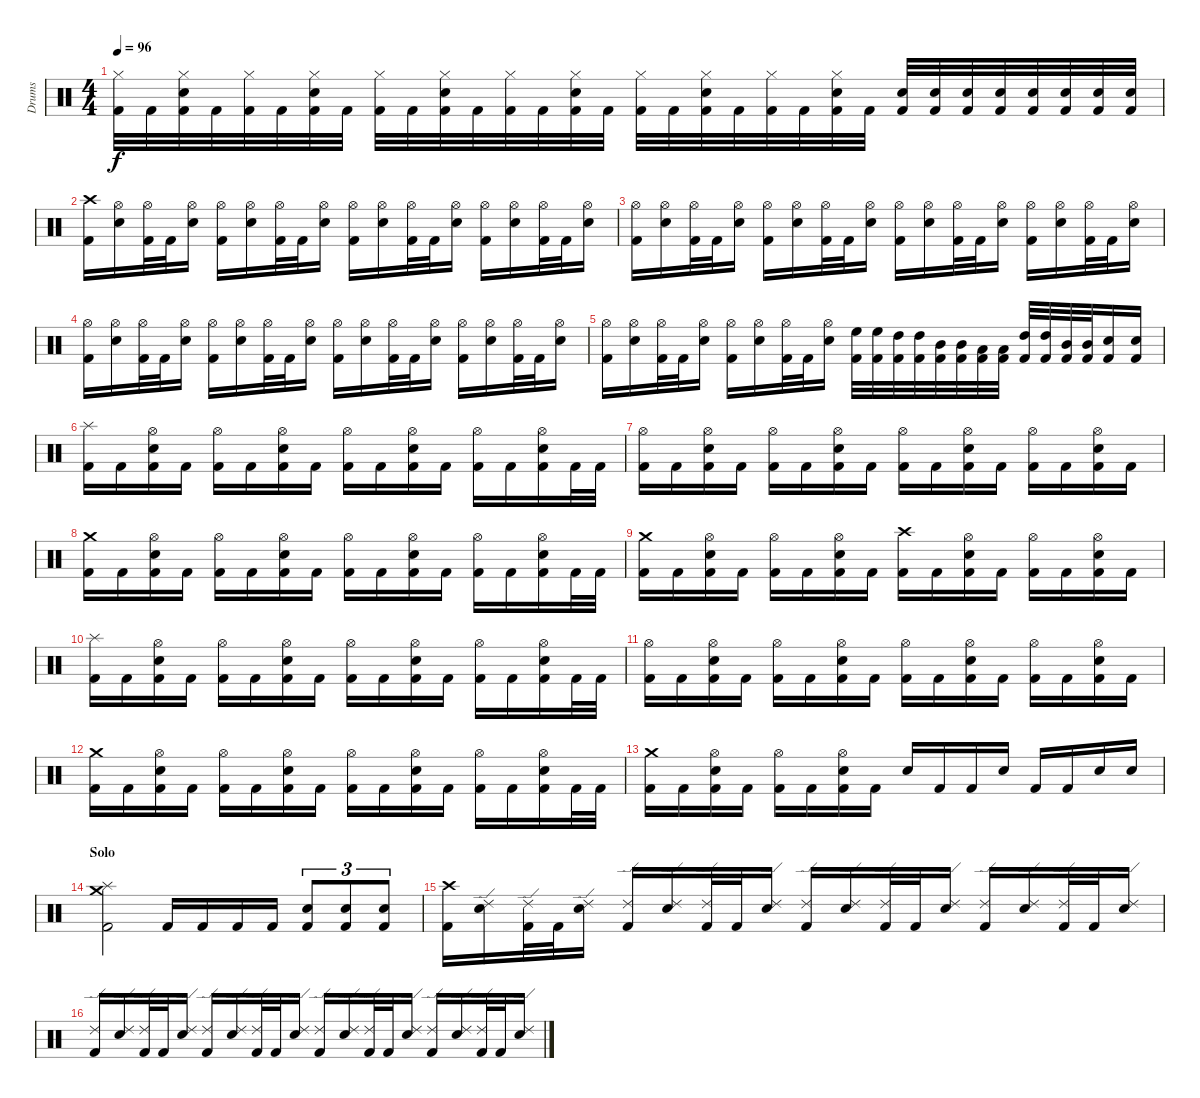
\track ("Drums" "Drums") {instrument percussion}
\staff {score}
\articulation defaults
\ts (4 4)
\tempo 96
\clef neutral
\ks c
("Kick (hit) 2" "Hi-Hat (closed)").32{dy f} "Kick (hit) 2".32 ("Kick (hit) 2" "Snare (hit) 2" "Hi-Hat (closed)").32 "Kick (hit) 2".32 ("Kick (hit) 2" "Hi-Hat (closed)").32 "Kick (hit) 2".32 ("Kick (hit) 2" "Snare (hit) 2" "Hi-Hat (closed)").32 "Kick (hit) 2".32 ("Kick (hit) 2" "Hi-Hat (closed)").32 "Kick (hit) 2".32 ("Kick (hit) 2" "Snare (hit) 2" "Hi-Hat (closed)").32 "Kick (hit) 2".32 ("Kick (hit) 2" "Hi-Hat (closed)").32 "Kick (hit) 2".32 ("Kick (hit) 2" "Snare (hit) 2" "Hi-Hat (closed)").32 "Kick (hit) 2".32 ("Kick (hit) 2" "Hi-Hat (closed)").32 "Kick (hit) 2".32 ("Kick (hit) 2" "Snare (hit) 2" "Hi-Hat (closed)").32 "Kick (hit) 2".32 ("Kick (hit) 2" "Hi-Hat (closed)").32 "Kick (hit) 2".32 ("Kick (hit) 2" "Snare (hit) 2" "Hi-Hat (closed)").32 "Kick (hit) 2".32 ("Kick (hit) 2" "Snare (hit) 2").32 ("Kick (hit) 2" "Snare (hit) 2").32 ("Kick (hit) 2" "Snare (hit) 2").32 ("Kick (hit) 2" "Snare (hit) 2").32 ("Kick (hit) 2" "Snare (hit) 2").32 ("Kick (hit) 2" "Snare (hit) 2").32 ("Kick (hit) 2" "Snare (hit) 2").32 ("Kick (hit) 2" "Snare (hit) 2").32 |
("Kick (hit) 2" "Crash high (hit)").16 ("Snare (hit) 2" "Hi-Hat (open)").16 ("Kick (hit) 2" "Hi-Hat (open)").32 "Kick (hit) 2".32 ("Snare (hit) 2" "Hi-Hat (open)").16 ("Kick (hit) 2" "Hi-Hat (open)").16 ("Snare (hit) 2" "Hi-Hat (open)").16 ("Kick (hit) 2" "Hi-Hat (open)").32 "Kick (hit) 2".32 ("Snare (hit) 2" "Hi-Hat (open)").16 ("Kick (hit) 2" "Hi-Hat (open)").16 ("Snare (hit) 2" "Hi-Hat (open)").16 ("Kick (hit) 2" "Hi-Hat (open)").32 "Kick (hit) 2".32 ("Snare (hit) 2" "Hi-Hat (open)").16 ("Kick (hit) 2" "Hi-Hat (open)").16 ("Snare (hit) 2" "Hi-Hat (open)").16 ("Kick (hit) 2" "Hi-Hat (open)").32 "Kick (hit) 2".32 ("Snare (hit) 2" "Hi-Hat (open)").16 |
("Kick (hit) 2" "Hi-Hat (open)").16 ("Snare (hit) 2" "Hi-Hat (open)").16 ("Kick (hit) 2" "Hi-Hat (open)").32 "Kick (hit) 2".32 ("Snare (hit) 2" "Hi-Hat (open)").16 ("Kick (hit) 2" "Hi-Hat (open)").16 ("Snare (hit) 2" "Hi-Hat (open)").16 ("Kick (hit) 2" "Hi-Hat (open)").32 "Kick (hit) 2".32 ("Snare (hit) 2" "Hi-Hat (open)").16 ("Kick (hit) 2" "Hi-Hat (open)").16 ("Snare (hit) 2" "Hi-Hat (open)").16 ("Kick (hit) 2" "Hi-Hat (open)").32 "Kick (hit) 2".32 ("Snare (hit) 2" "Hi-Hat (open)").16 ("Kick (hit) 2" "Hi-Hat (open)").16 ("Snare (hit) 2" "Hi-Hat (open)").16 ("Kick (hit) 2" "Hi-Hat (open)").32 "Kick (hit) 2".32 ("Snare (hit) 2" "Hi-Hat (open)").16 |
("Kick (hit) 2" "Hi-Hat (open)").16 ("Snare (hit) 2" "Hi-Hat (open)").16 ("Kick (hit) 2" "Hi-Hat (open)").32 "Kick (hit) 2".32 ("Snare (hit) 2" "Hi-Hat (open)").16 ("Kick (hit) 2" "Hi-Hat (open)").16 ("Snare (hit) 2" "Hi-Hat (open)").16 ("Kick (hit) 2" "Hi-Hat (open)").32 "Kick (hit) 2".32 ("Snare (hit) 2" "Hi-Hat (open)").16 ("Kick (hit) 2" "Hi-Hat (open)").16 ("Snare (hit) 2" "Hi-Hat (open)").16 ("Kick (hit) 2" "Hi-Hat (open)").32 "Kick (hit) 2".32 ("Snare (hit) 2" "Hi-Hat (open)").16 ("Kick (hit) 2" "Hi-Hat (open)").16 ("Snare (hit) 2" "Hi-Hat (open)").16 ("Kick (hit) 2" "Hi-Hat (open)").32 "Kick (hit) 2".32 ("Snare (hit) 2" "Hi-Hat (open)").16 |
("Kick (hit) 2" "Hi-Hat (open)").16 ("Snare (hit) 2" "Hi-Hat (open)").16 ("Kick (hit) 2" "Hi-Hat (open)").32 "Kick (hit) 2".32 ("Snare (hit) 2" "Hi-Hat (open)").16 ("Kick (hit) 2" "Hi-Hat (open)").16 ("Snare (hit) 2" "Hi-Hat (open)").16 ("Kick (hit) 2" "Hi-Hat (open)").32 "Kick (hit) 2".32 ("Snare (hit) 2" "Hi-Hat (open)").16 ("Kick (hit) 2" "High Floor Tom (hit)").32 ("Kick (hit) 2" "High Floor Tom (hit)").32 ("Kick (hit) 2" "High Tom (hit)").32 ("Kick (hit) 2" "High Tom (hit)").32 ("Kick (hit) 2" "Mid Tom (hit)").32 ("Kick (hit) 2" "Mid Tom (hit)").32 ("Kick (hit) 2" "Low Tom (hit)").32 ("Kick (hit) 2" "Low Tom (hit)").32 ("Kick (hit) 2" "High Tom (hit)").32 ("Kick (hit) 2" "High Tom (hit)").32 ("Kick (hit) 2" "Mid Tom (hit)").32 ("Kick (hit) 2" "Mid Tom (hit)").32 ("Kick (hit) 2" "Snare (hit) 2").16 ("Kick (hit) 2" "Snare (hit) 2").16 |
\section ("" "")
("Kick (hit) 2" "Splash (hit)").16 "Kick (hit) 2".16 ("Kick (hit) 2" "Snare (hit) 2" "Hi-Hat (open)").16 "Kick (hit) 2".16 ("Kick (hit) 2" "Hi-Hat (open)").16 "Kick (hit) 2".16 ("Kick (hit) 2" "Snare (hit) 2" "Hi-Hat (open)").16 "Kick (hit) 2".16 ("Kick (hit) 2" "Hi-Hat (open)").16 "Kick (hit) 2".16 ("Kick (hit) 2" "Snare (hit) 2" "Hi-Hat (open)").16 "Kick (hit) 2".16 ("Kick (hit) 2" "Hi-Hat (open)").16 "Kick (hit) 2".16 ("Kick (hit) 2" "Snare (hit) 2" "Hi-Hat (open)").16 "Kick (hit) 2".32 "Kick (hit) 2".32 |
("Kick (hit) 2" "Hi-Hat (open)").16 "Kick (hit) 2".16 ("Kick (hit) 2" "Snare (hit) 2" "Hi-Hat (open)").16 "Kick (hit) 2".16 ("Kick (hit) 2" "Hi-Hat (open)").16 "Kick (hit) 2".16 ("Kick (hit) 2" "Snare (hit) 2" "Hi-Hat (open)").16 "Kick (hit) 2".16 ("Kick (hit) 2" "Hi-Hat (open)").16 "Kick (hit) 2".16 ("Kick (hit) 2" "Snare (hit) 2" "Hi-Hat (open)").16 "Kick (hit) 2".16 ("Kick (hit) 2" "Hi-Hat (open)").16 "Kick (hit) 2".16 ("Kick (hit) 2" "Snare (hit) 2" "Hi-Hat (open)").16 "Kick (hit) 2".16 |
("Kick (hit) 2" "Crash medium (hit)").16 "Kick (hit) 2".16 ("Kick (hit) 2" "Snare (hit) 2" "Hi-Hat (open)").16 "Kick (hit) 2".16 ("Kick (hit) 2" "Hi-Hat (open)").16 "Kick (hit) 2".16 ("Kick (hit) 2" "Snare (hit) 2" "Hi-Hat (open)").16 "Kick (hit) 2".16 ("Kick (hit) 2" "Hi-Hat (open)").16 "Kick (hit) 2".16 ("Kick (hit) 2" "Snare (hit) 2" "Hi-Hat (open)").16 "Kick (hit) 2".16 ("Kick (hit) 2" "Hi-Hat (open)").16 "Kick (hit) 2".16 ("Kick (hit) 2" "Snare (hit) 2" "Hi-Hat (open)").16 "Kick (hit) 2".32 "Kick (hit) 2".32 |
("Kick (hit) 2" "Crash medium (hit)").16 "Kick (hit) 2".16 ("Kick (hit) 2" "Snare (hit) 2" "Hi-Hat (open)").16 "Kick (hit) 2".16 ("Kick (hit) 2" "Hi-Hat (open)").16 "Kick (hit) 2".16 ("Kick (hit) 2" "Snare (hit) 2" "Hi-Hat (open)").16 "Kick (hit) 2".16 ("Kick (hit) 2" "Crash high (hit)").16 "Kick (hit) 2".16 ("Kick (hit) 2" "Snare (hit) 2" "Hi-Hat (open)").16 "Kick (hit) 2".16 ("Kick (hit) 2" "Hi-Hat (open)").16 "Kick (hit) 2".16 ("Kick (hit) 2" "Snare (hit) 2" "Hi-Hat (open)").16 "Kick (hit) 2".16 |
("Kick (hit) 2" "Splash (hit)").16 "Kick (hit) 2".16 ("Kick (hit) 2" "Snare (hit) 2" "Hi-Hat (open)").16 "Kick (hit) 2".16 ("Kick (hit) 2" "Hi-Hat (open)").16 "Kick (hit) 2".16 ("Kick (hit) 2" "Snare (hit) 2" "Hi-Hat (open)").16 "Kick (hit) 2".16 ("Kick (hit) 2" "Hi-Hat (open)").16 "Kick (hit) 2".16 ("Kick (hit) 2" "Snare (hit) 2" "Hi-Hat (open)").16 "Kick (hit) 2".16 ("Kick (hit) 2" "Hi-Hat (open)").16 "Kick (hit) 2".16 ("Kick (hit) 2" "Snare (hit) 2" "Hi-Hat (open)").16 "Kick (hit) 2".32 "Kick (hit) 2".32 |
("Kick (hit) 2" "Hi-Hat (open)").16 "Kick (hit) 2".16 ("Kick (hit) 2" "Snare (hit) 2" "Hi-Hat (open)").16 "Kick (hit) 2".16 ("Kick (hit) 2" "Hi-Hat (open)").16 "Kick (hit) 2".16 ("Kick (hit) 2" "Snare (hit) 2" "Hi-Hat (open)").16 "Kick (hit) 2".16 ("Kick (hit) 2" "Hi-Hat (open)").16 "Kick (hit) 2".16 ("Kick (hit) 2" "Snare (hit) 2" "Hi-Hat (open)").16 "Kick (hit) 2".16 ("Kick (hit) 2" "Hi-Hat (open)").16 "Kick (hit) 2".16 ("Kick (hit) 2" "Snare (hit) 2" "Hi-Hat (open)").16 "Kick (hit) 2".16 |
("Kick (hit) 2" "Crash medium (hit)").16 "Kick (hit) 2".16 ("Kick (hit) 2" "Snare (hit) 2" "Hi-Hat (open)").16 "Kick (hit) 2".16 ("Kick (hit) 2" "Hi-Hat (open)").16 "Kick (hit) 2".16 ("Kick (hit) 2" "Snare (hit) 2" "Hi-Hat (open)").16 "Kick (hit) 2".16 ("Kick (hit) 2" "Hi-Hat (open)").16 "Kick (hit) 2".16 ("Kick (hit) 2" "Snare (hit) 2" "Hi-Hat (open)").16 "Kick (hit) 2".16 ("Kick (hit) 2" "Hi-Hat (open)").16 "Kick (hit) 2".16 ("Kick (hit) 2" "Snare (hit) 2" "Hi-Hat (open)").16 "Kick (hit) 2".32 "Kick (hit) 2".32 |
("Kick (hit) 2" "Crash medium (hit)").16 "Kick (hit) 2".16 ("Kick (hit) 2" "Snare (hit) 2" "Hi-Hat (open)").16 "Kick (hit) 2".16 ("Kick (hit) 2" "Hi-Hat (open)").16 "Kick (hit) 2".16 ("Kick (hit) 2" "Snare (hit) 2" "Hi-Hat (open)").16 "Kick (hit) 2".16 "Snare (hit) 2".16 "Kick (hit) 2".16 "Kick (hit) 2".16 "Snare (hit) 2".16 "Kick (hit) 2".16 "Kick (hit) 2".16 "Snare (hit) 2".16 "Snare (hit) 2".16 |
\section ("" "Solo")
("Kick (hit) 2" "Crash medium (hit)" "Splash (hit)").2 "Kick (hit) 2".16 "Kick (hit) 2".16 "Kick (hit) 2".16 "Kick (hit) 2".16 ("Kick (hit) 2" "Snare (hit) 2").8{tu (3 2)} ("Kick (hit) 2" "Snare (hit) 2").8{tu (3 2)} ("Kick (hit) 2" "Snare (hit) 2").8{tu (3 2)} |
("Kick (hit) 2" "Crash high (hit)").16 ("Snare (hit) 2" "Ride (edge) 2").16 ("Kick (hit) 2" "Ride (edge) 2").32 "Kick (hit) 2".32 ("Snare (hit) 2" "Ride (edge) 2").16 ("Kick (hit) 2" "Ride (edge) 2").16 ("Snare (hit) 2" "Ride (edge) 2").16 ("Kick (hit) 2" "Ride (edge) 2").32 "Kick (hit) 2".32 ("Snare (hit) 2" "Ride (edge) 2").16 ("Kick (hit) 2" "Ride (edge) 2").16 ("Snare (hit) 2" "Ride (edge) 2").16 ("Kick (hit) 2" "Ride (edge) 2").32 "Kick (hit) 2".32 ("Snare (hit) 2" "Ride (edge) 2").16 ("Kick (hit) 2" "Ride (edge) 2").16 ("Snare (hit) 2" "Ride (edge) 2").16 ("Kick (hit) 2" "Ride (edge) 2").32 "Kick (hit) 2".32 ("Snare (hit) 2" "Ride (edge) 2").16 |
("Kick (hit) 2" "Ride (edge) 2").16 ("Snare (hit) 2" "Ride (edge) 2").16 ("Kick (hit) 2" "Ride (edge) 2").32 "Kick (hit) 2".32 ("Snare (hit) 2" "Ride (edge) 2").16 ("Kick (hit) 2" "Ride (edge) 2").16 ("Snare (hit) 2" "Ride (edge) 2").16 ("Kick (hit) 2" "Ride (edge) 2").32 "Kick (hit) 2".32 ("Snare (hit) 2" "Ride (edge) 2").16 ("Kick (hit) 2" "Ride (edge) 2").16 ("Snare (hit) 2" "Ride (edge) 2").16 ("Kick (hit) 2" "Ride (edge) 2").32 "Kick (hit) 2".32 ("Snare (hit) 2" "Ride (edge) 2").16 ("Kick (hit) 2" "Ride (edge) 2").16 ("Snare (hit) 2" "Ride (edge) 2").16 ("Kick (hit) 2" "Ride (edge) 2").32 "Kick (hit) 2".32 ("Snare (hit) 2" "Ride (edge) 2").16
